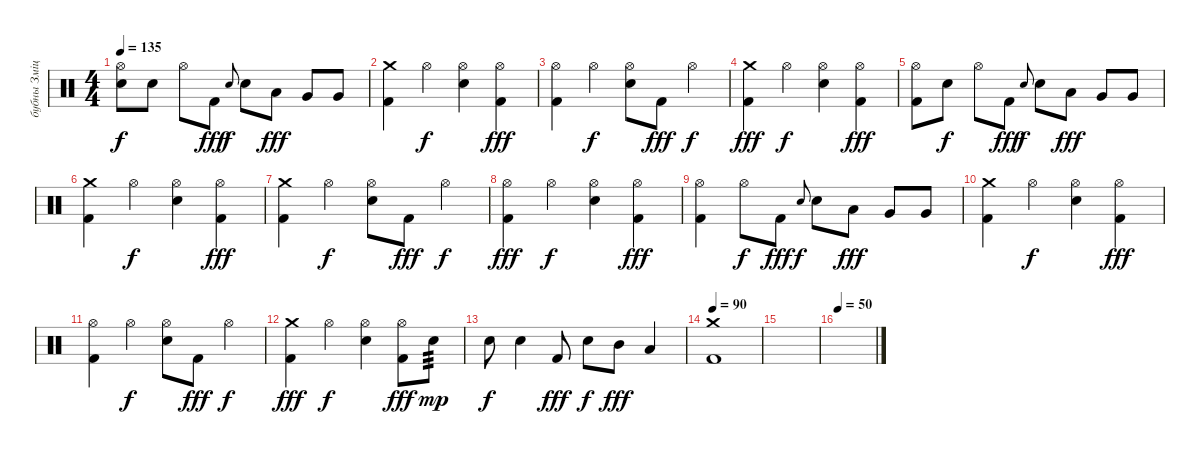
\track ("бубны Змiцер" "бубны Змiц") {solo instrument percussion}
\staff {score}
\articulation defaults
\ts (4 4)
\tempo 135
\clef neutral
\ks c
("Hi-Hat (open)" "Electric Snare (hit)").8{dy f} "Electric Snare (hit)".8 "Hi-Hat (open)".8 "Kick (hit) 2".8{dy fff} "Electric Snare (hit)".8{gr onbeat dy f} "Electric Snare (hit)".8 "Low Tom (hit)".8{dy fff} "Very Low Tom (hit)".8 "Very Low Tom (hit)".8 |
("Crash medium (hit)" "Kick (hit) 2").4 "Hi-Hat (open)".4{dy f} ("Hi-Hat (open)" "Electric Snare (hit)").4 ("Hi-Hat (open)" "Kick (hit) 2").4{dy fff} |
("Hi-Hat (open)" "Kick (hit) 2").4 "Hi-Hat (open)".4{dy f} ("Hi-Hat (open)" "Electric Snare (hit)").8 "Kick (hit) 2".8{dy fff} "Hi-Hat (open)".4{dy f} |
("Crash medium (hit)" "Kick (hit) 2").4{dy fff} "Hi-Hat (open)".4{dy f} ("Hi-Hat (open)" "Electric Snare (hit)").4 ("Hi-Hat (open)" "Kick (hit) 2").4{dy fff} |
("Hi-Hat (open)" "Kick (hit) 2").8 "Electric Snare (hit)".8{dy f} "Hi-Hat (open)".8 "Kick (hit) 2".8{dy fff} "Electric Snare (hit)".8{gr onbeat dy f} "Electric Snare (hit)".8 "Low Tom (hit)".8{dy fff} "Very Low Tom (hit)".8 "Very Low Tom (hit)".8 |
("Crash medium (hit)" "Kick (hit) 2").4 "Hi-Hat (open)".4{dy f} ("Hi-Hat (open)" "Electric Snare (hit)").4 ("Hi-Hat (open)" "Kick (hit) 2").4{dy fff} |
("Crash medium (hit)" "Kick (hit) 2").4 "Hi-Hat (open)".4{dy f} ("Hi-Hat (open)" "Electric Snare (hit)").8 "Kick (hit) 2".8{dy fff} "Hi-Hat (open)".4{dy f} |
("Hi-Hat (open)" "Kick (hit) 2").4{dy fff} "Hi-Hat (open)".4{dy f} ("Hi-Hat (open)" "Electric Snare (hit)").4 ("Hi-Hat (open)" "Kick (hit) 2").4{dy fff} |
("Hi-Hat (open)" "Kick (hit) 2").4 "Hi-Hat (open)".8{dy f} "Kick (hit) 2".8{dy fff} "Electric Snare (hit)".8{gr onbeat dy f} "Electric Snare (hit)".8 "Low Tom (hit)".8{dy fff} "Very Low Tom (hit)".8 "Very Low Tom (hit)".8 |
("Crash medium (hit)" "Kick (hit) 2").4 "Hi-Hat (open)".4{dy f} ("Hi-Hat (open)" "Electric Snare (hit)").4 ("Hi-Hat (open)" "Kick (hit) 2").4{dy fff} |
("Hi-Hat (open)" "Kick (hit) 2").4 "Hi-Hat (open)".4{dy f} ("Hi-Hat (open)" "Electric Snare (hit)").8 "Kick (hit) 2".8{dy fff} "Hi-Hat (open)".4{dy f} |
("Crash medium (hit)" "Kick (hit) 2").4{dy fff} "Hi-Hat (open)".4{dy f} ("Hi-Hat (open)" "Electric Snare (hit)").4 ("Hi-Hat (open)" "Kick (hit) 2").8{dy fff} "Electric Snare (hit)".8{tp 3 dy mp} |
"Electric Snare (hit)".8{dy f} "Electric Snare (hit)".4 "Kick (hit) 2".8{dy fff} "Electric Snare (hit)".8{dy f} "Mid Tom (hit)".8{dy fff} "Low Tom (hit)".4 |
\tempo 90
("Crash medium (hit)" "Kick (hit) 2").1 |
|
\tempo 50
